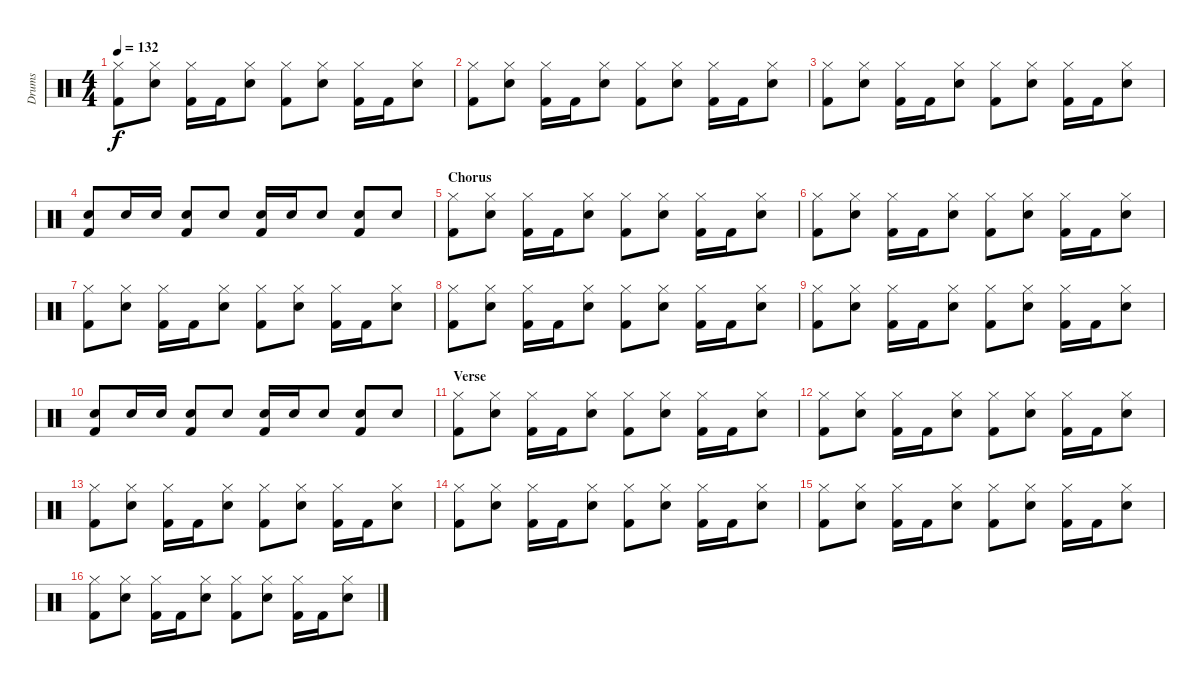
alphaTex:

\track ("Drums" "Drums") {instrument percussion}
\staff {score}
\articulation defaults
\ts (4 4)
\tempo 132
\clef neutral
\ks c
("Kick (hit) 2" "Hi-Hat (closed)").8{dy f} ("Snare (hit) 2" "Hi-Hat (closed)").8 ("Kick (hit) 2" "Hi-Hat (closed)").16 "Kick (hit) 2".16 ("Snare (hit) 2" "Hi-Hat (closed)").8 ("Kick (hit) 2" "Hi-Hat (closed)").8 ("Snare (hit) 2" "Hi-Hat (closed)").8 ("Kick (hit) 2" "Hi-Hat (closed)").16 "Kick (hit) 2".16 ("Snare (hit) 2" "Hi-Hat (closed)").8 |
("Kick (hit) 2" "Hi-Hat (closed)").8 ("Snare (hit) 2" "Hi-Hat (closed)").8 ("Kick (hit) 2" "Hi-Hat (closed)").16 "Kick (hit) 2".16 ("Snare (hit) 2" "Hi-Hat (closed)").8 ("Kick (hit) 2" "Hi-Hat (closed)").8 ("Snare (hit) 2" "Hi-Hat (closed)").8 ("Kick (hit) 2" "Hi-Hat (closed)").16 "Kick (hit) 2".16 ("Snare (hit) 2" "Hi-Hat (closed)").8 |
("Kick (hit) 2" "Hi-Hat (closed)").8 ("Snare (hit) 2" "Hi-Hat (closed)").8 ("Kick (hit) 2" "Hi-Hat (closed)").16 "Kick (hit) 2".16 ("Snare (hit) 2" "Hi-Hat (closed)").8 ("Kick (hit) 2" "Hi-Hat (closed)").8 ("Snare (hit) 2" "Hi-Hat (closed)").8 ("Kick (hit) 2" "Hi-Hat (closed)").16 "Kick (hit) 2".16 ("Snare (hit) 2" "Hi-Hat (closed)").8 |
("Snare (hit) 2" "Kick (hit) 2").8 "Snare (hit) 2".16 "Snare (hit) 2".16 ("Snare (hit) 2" "Kick (hit) 2").8 "Snare (hit) 2".8 ("Snare (hit) 2" "Kick (hit) 2").16 "Snare (hit) 2".16 "Snare (hit) 2".8 ("Snare (hit) 2" "Kick (hit) 2").8 "Snare (hit) 2".8 |
\section ("" "Chorus")
("Kick (hit) 2" "Hi-Hat (closed)").8 ("Snare (hit) 2" "Hi-Hat (closed)").8 ("Kick (hit) 2" "Hi-Hat (closed)").16 "Kick (hit) 2".16 ("Snare (hit) 2" "Hi-Hat (closed)").8 ("Kick (hit) 2" "Hi-Hat (closed)").8 ("Snare (hit) 2" "Hi-Hat (closed)").8 ("Kick (hit) 2" "Hi-Hat (closed)").16 "Kick (hit) 2".16 ("Snare (hit) 2" "Hi-Hat (closed)").8 |
("Kick (hit) 2" "Hi-Hat (closed)").8 ("Snare (hit) 2" "Hi-Hat (closed)").8 ("Kick (hit) 2" "Hi-Hat (closed)").16 "Kick (hit) 2".16 ("Snare (hit) 2" "Hi-Hat (closed)").8 ("Kick (hit) 2" "Hi-Hat (closed)").8 ("Snare (hit) 2" "Hi-Hat (closed)").8 ("Kick (hit) 2" "Hi-Hat (closed)").16 "Kick (hit) 2".16 ("Snare (hit) 2" "Hi-Hat (closed)").8 |
("Kick (hit) 2" "Hi-Hat (closed)").8 ("Snare (hit) 2" "Hi-Hat (closed)").8 ("Kick (hit) 2" "Hi-Hat (closed)").16 "Kick (hit) 2".16 ("Snare (hit) 2" "Hi-Hat (closed)").8 ("Kick (hit) 2" "Hi-Hat (closed)").8 ("Snare (hit) 2" "Hi-Hat (closed)").8 ("Kick (hit) 2" "Hi-Hat (closed)").16 "Kick (hit) 2".16 ("Snare (hit) 2" "Hi-Hat (closed)").8 |
("Kick (hit) 2" "Hi-Hat (closed)").8 ("Snare (hit) 2" "Hi-Hat (closed)").8 ("Kick (hit) 2" "Hi-Hat (closed)").16 "Kick (hit) 2".16 ("Snare (hit) 2" "Hi-Hat (closed)").8 ("Kick (hit) 2" "Hi-Hat (closed)").8 ("Snare (hit) 2" "Hi-Hat (closed)").8 ("Kick (hit) 2" "Hi-Hat (closed)").16 "Kick (hit) 2".16 ("Snare (hit) 2" "Hi-Hat (closed)").8 |
("Kick (hit) 2" "Hi-Hat (closed)").8 ("Snare (hit) 2" "Hi-Hat (closed)").8 ("Kick (hit) 2" "Hi-Hat (closed)").16 "Kick (hit) 2".16 ("Snare (hit) 2" "Hi-Hat (closed)").8 ("Kick (hit) 2" "Hi-Hat (closed)").8 ("Snare (hit) 2" "Hi-Hat (closed)").8 ("Kick (hit) 2" "Hi-Hat (closed)").16 "Kick (hit) 2".16 ("Snare (hit) 2" "Hi-Hat (closed)").8 |
("Snare (hit) 2" "Kick (hit) 2").8 "Snare (hit) 2".16 "Snare (hit) 2".16 ("Snare (hit) 2" "Kick (hit) 2").8 "Snare (hit) 2".8 ("Snare (hit) 2" "Kick (hit) 2").16 "Snare (hit) 2".16 "Snare (hit) 2".8 ("Snare (hit) 2" "Kick (hit) 2").8 "Snare (hit) 2".8 |
\section ("" "Verse")
("Kick (hit) 2" "Hi-Hat (closed)").8 ("Snare (hit) 2" "Hi-Hat (closed)").8 ("Kick (hit) 2" "Hi-Hat (closed)").16 "Kick (hit) 2".16 ("Snare (hit) 2" "Hi-Hat (closed)").8 ("Kick (hit) 2" "Hi-Hat (closed)").8 ("Snare (hit) 2" "Hi-Hat (closed)").8 ("Kick (hit) 2" "Hi-Hat (closed)").16 "Kick (hit) 2".16 ("Snare (hit) 2" "Hi-Hat (closed)").8 |
("Kick (hit) 2" "Hi-Hat (closed)").8 ("Snare (hit) 2" "Hi-Hat (closed)").8 ("Kick (hit) 2" "Hi-Hat (closed)").16 "Kick (hit) 2".16 ("Snare (hit) 2" "Hi-Hat (closed)").8 ("Kick (hit) 2" "Hi-Hat (closed)").8 ("Snare (hit) 2" "Hi-Hat (closed)").8 ("Kick (hit) 2" "Hi-Hat (closed)").16 "Kick (hit) 2".16 ("Snare (hit) 2" "Hi-Hat (closed)").8 |
("Kick (hit) 2" "Hi-Hat (closed)").8 ("Snare (hit) 2" "Hi-Hat (closed)").8 ("Kick (hit) 2" "Hi-Hat (closed)").16 "Kick (hit) 2".16 ("Snare (hit) 2" "Hi-Hat (closed)").8 ("Kick (hit) 2" "Hi-Hat (closed)").8 ("Snare (hit) 2" "Hi-Hat (closed)").8 ("Kick (hit) 2" "Hi-Hat (closed)").16 "Kick (hit) 2".16 ("Snare (hit) 2" "Hi-Hat (closed)").8 |
("Kick (hit) 2" "Hi-Hat (closed)").8 ("Snare (hit) 2" "Hi-Hat (closed)").8 ("Kick (hit) 2" "Hi-Hat (closed)").16 "Kick (hit) 2".16 ("Snare (hit) 2" "Hi-Hat (closed)").8 ("Kick (hit) 2" "Hi-Hat (closed)").8 ("Snare (hit) 2" "Hi-Hat (closed)").8 ("Kick (hit) 2" "Hi-Hat (closed)").16 "Kick (hit) 2".16 ("Snare (hit) 2" "Hi-Hat (closed)").8 |
("Kick (hit) 2" "Hi-Hat (closed)").8 ("Snare (hit) 2" "Hi-Hat (closed)").8 ("Kick (hit) 2" "Hi-Hat (closed)").16 "Kick (hit) 2".16 ("Snare (hit) 2" "Hi-Hat (closed)").8 ("Kick (hit) 2" "Hi-Hat (closed)").8 ("Snare (hit) 2" "Hi-Hat (closed)").8 ("Kick (hit) 2" "Hi-Hat (closed)").16 "Kick (hit) 2".16 ("Snare (hit) 2" "Hi-Hat (closed)").8 |
("Kick (hit) 2" "Hi-Hat (closed)").8 ("Snare (hit) 2" "Hi-Hat (closed)").8 ("Kick (hit) 2" "Hi-Hat (closed)").16 "Kick (hit) 2".16 ("Snare (hit) 2" "Hi-Hat (closed)").8 ("Kick (hit) 2" "Hi-Hat (closed)").8 ("Snare (hit) 2" "Hi-Hat (closed)").8 ("Kick (hit) 2" "Hi-Hat (closed)").16 "Kick (hit) 2".16 ("Snare (hit) 2" "Hi-Hat (closed)").8
